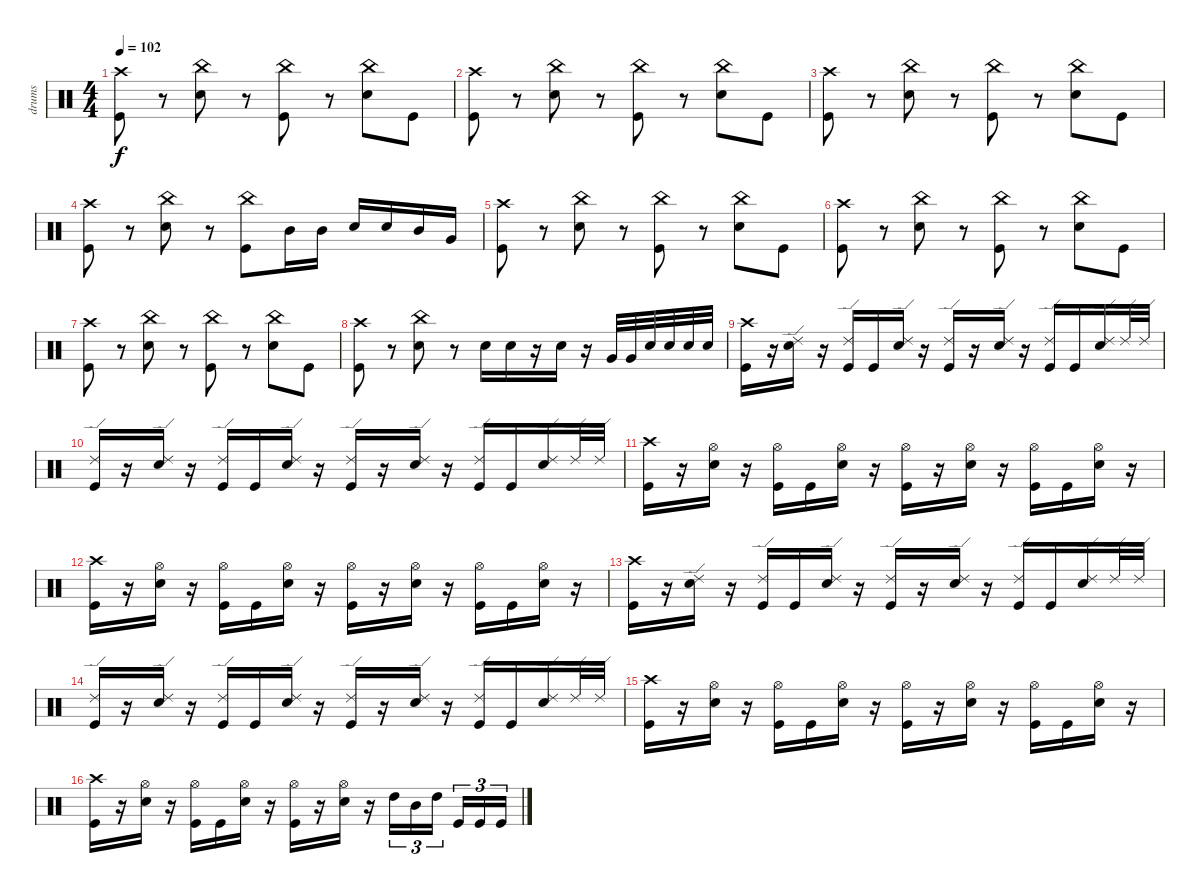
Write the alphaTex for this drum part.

\track ("drums" "drums") {instrument percussion}
\staff {score}
\articulation defaults
\ts (4 4)
\tempo 102
\clef neutral
\ks c
("Crash high (hit)" "Kick (hit)").8{dy f} r.8 ("China (hit)" "Snare (hit) 2").8 r.8 ("China (hit)" "Kick (hit)").8 r.8 ("China (hit)" "Snare (hit) 2").8 "Kick (hit)".8 |
("Crash high (hit)" "Kick (hit)").8 r.8 ("China (hit)" "Snare (hit) 2").8 r.8 ("China (hit)" "Kick (hit)").8 r.8 ("China (hit)" "Snare (hit) 2").8 "Kick (hit)".8 |
("Crash high (hit)" "Kick (hit)").8 r.8 ("China (hit)" "Snare (hit) 2").8 r.8 ("China (hit)" "Kick (hit)").8 r.8 ("China (hit)" "Snare (hit) 2").8 "Kick (hit)".8 |
("Crash high (hit)" "Kick (hit)").8 r.8 ("China (hit)" "Snare (hit) 2").8 r.8 ("China (hit)" "Kick (hit)").8 "Mid Tom (hit)".16 "Mid Tom (hit)".16 "Snare (hit) 2".16 "Snare (hit) 2".16 "Mid Tom (hit)".16 "Very Low Tom (hit)".16 |
("Crash high (hit)" "Kick (hit)").8 r.8 ("China (hit)" "Snare (hit) 2").8 r.8 ("China (hit)" "Kick (hit)").8 r.8 ("China (hit)" "Snare (hit) 2").8 "Kick (hit)".8 |
("Crash high (hit)" "Kick (hit)").8 r.8 ("China (hit)" "Snare (hit) 2").8 r.8 ("China (hit)" "Kick (hit)").8 r.8 ("China (hit)" "Snare (hit) 2").8 "Kick (hit)".8 |
("Crash high (hit)" "Kick (hit)").8 r.8 ("China (hit)" "Snare (hit) 2").8 r.8 ("China (hit)" "Kick (hit)").8 r.8 ("China (hit)" "Snare (hit) 2").8 "Kick (hit)".8 |
("Crash high (hit)" "Kick (hit)").8 r.8 ("China (hit)" "Snare (hit) 2").8 r.8 "Snare (hit) 2".16 "Snare (hit) 2".16 r.16 "Snare (hit) 2".16 r.16 "Very Low Tom (hit)".32 "Very Low Tom (hit)".32 "Snare (hit) 2".32 "Snare (hit) 2".32 "Snare (hit) 2".32 "Snare (hit) 2".32 |
("Crash high (hit)" "Kick (hit)").16 r.16 ("Ride (edge) 2" "Snare (hit) 2").16 r.16 ("Ride (edge) 2" "Kick (hit)").16 "Kick (hit)".16 ("Ride (edge) 2" "Snare (hit) 2").16 r.16 ("Ride (edge) 2" "Kick (hit)").16 r.16 ("Ride (edge) 2" "Snare (hit) 2").16 r.16 ("Ride (edge) 2" "Kick (hit)").16 "Kick (hit)".16 ("Ride (edge) 2" "Snare (hit) 2").16 "Ride (edge) 2".32 "Ride (edge) 2".32 |
("Ride (edge) 2" "Kick (hit)").16 r.16 ("Ride (edge) 2" "Snare (hit) 2").16 r.16 ("Ride (edge) 2" "Kick (hit)").16 "Kick (hit)".16 ("Ride (edge) 2" "Snare (hit) 2").16 r.16 ("Ride (edge) 2" "Kick (hit)").16 r.16 ("Ride (edge) 2" "Snare (hit) 2").16 r.16 ("Ride (edge) 2" "Kick (hit)").16 "Kick (hit)".16 ("Ride (edge) 2" "Snare (hit) 2").16 "Ride (edge) 2".32 "Ride (edge) 2".32 |
("Crash high (hit)" "Kick (hit)").16 r.16 ("Hi-Hat (open)" "Snare (hit) 2").16 r.16 ("Kick (hit)" "Hi-Hat (open)").16 "Kick (hit)".16 ("Hi-Hat (open)" "Snare (hit) 2").16 r.16 ("Hi-Hat (open)" "Kick (hit)").16 r.16 ("Hi-Hat (open)" "Snare (hit) 2").16 r.16 ("Hi-Hat (open)" "Kick (hit)").16 "Kick (hit)".16 ("Hi-Hat (open)" "Snare (hit) 2").16 r.16 |
("Crash high (hit)" "Kick (hit)").16 r.16 ("Hi-Hat (open)" "Snare (hit) 2").16 r.16 ("Hi-Hat (open)" "Kick (hit)").16 "Kick (hit)".16 ("Hi-Hat (open)" "Snare (hit) 2").16 r.16 ("Hi-Hat (open)" "Kick (hit)").16 r.16 ("Hi-Hat (open)" "Snare (hit) 2").16 r.16 ("Hi-Hat (open)" "Kick (hit)").16 "Kick (hit)".16 ("Hi-Hat (open)" "Snare (hit) 2").16 r.16 |
("Crash high (hit)" "Kick (hit)").16 r.16 ("Ride (edge) 2" "Snare (hit) 2").16 r.16 ("Ride (edge) 2" "Kick (hit)").16 "Kick (hit)".16 ("Ride (edge) 2" "Snare (hit) 2").16 r.16 ("Ride (edge) 2" "Kick (hit)").16 r.16 ("Ride (edge) 2" "Snare (hit) 2").16 r.16 ("Ride (edge) 2" "Kick (hit)").16 "Kick (hit)".16 ("Ride (edge) 2" "Snare (hit) 2").16 "Ride (edge) 2".32 "Ride (edge) 2".32 |
("Ride (edge) 2" "Kick (hit)").16 r.16 ("Ride (edge) 2" "Snare (hit) 2").16 r.16 ("Ride (edge) 2" "Kick (hit)").16 "Kick (hit)".16 ("Ride (edge) 2" "Snare (hit) 2").16 r.16 ("Ride (edge) 2" "Kick (hit)").16 r.16 ("Ride (edge) 2" "Snare (hit) 2").16 r.16 ("Ride (edge) 2" "Kick (hit)").16 "Kick (hit)".16 ("Ride (edge) 2" "Snare (hit) 2").16 "Ride (edge) 2".32 "Ride (edge) 2".32 |
("Crash high (hit)" "Kick (hit)").16 r.16 ("Hi-Hat (open)" "Snare (hit) 2").16 r.16 ("Kick (hit)" "Hi-Hat (open)").16 "Kick (hit)".16 ("Hi-Hat (open)" "Snare (hit) 2").16 r.16 ("Hi-Hat (open)" "Kick (hit)").16 r.16 ("Hi-Hat (open)" "Snare (hit) 2").16 r.16 ("Hi-Hat (open)" "Kick (hit)").16 "Kick (hit)".16 ("Hi-Hat (open)" "Snare (hit) 2").16 r.16 |
("Crash high (hit)" "Kick (hit)").16 r.16 ("Hi-Hat (open)" "Snare (hit) 2").16 r.16 ("Hi-Hat (open)" "Kick (hit)").16 "Kick (hit)".16 ("Hi-Hat (open)" "Snare (hit) 2").16 r.16 ("Hi-Hat (open)" "Kick (hit)").16 r.16 ("Hi-Hat (open)" "Snare (hit) 2").16 r.16 "High Tom (hit)".16{tu (3 2)} "Mid Tom (hit)".16{tu (3 2)} "High Tom (hit)".16{tu (3 2)} "Kick (hit)".16{tu (3 2)} "Kick (hit)".16{tu (3 2)} "Kick (hit)".16{tu (3 2)}
